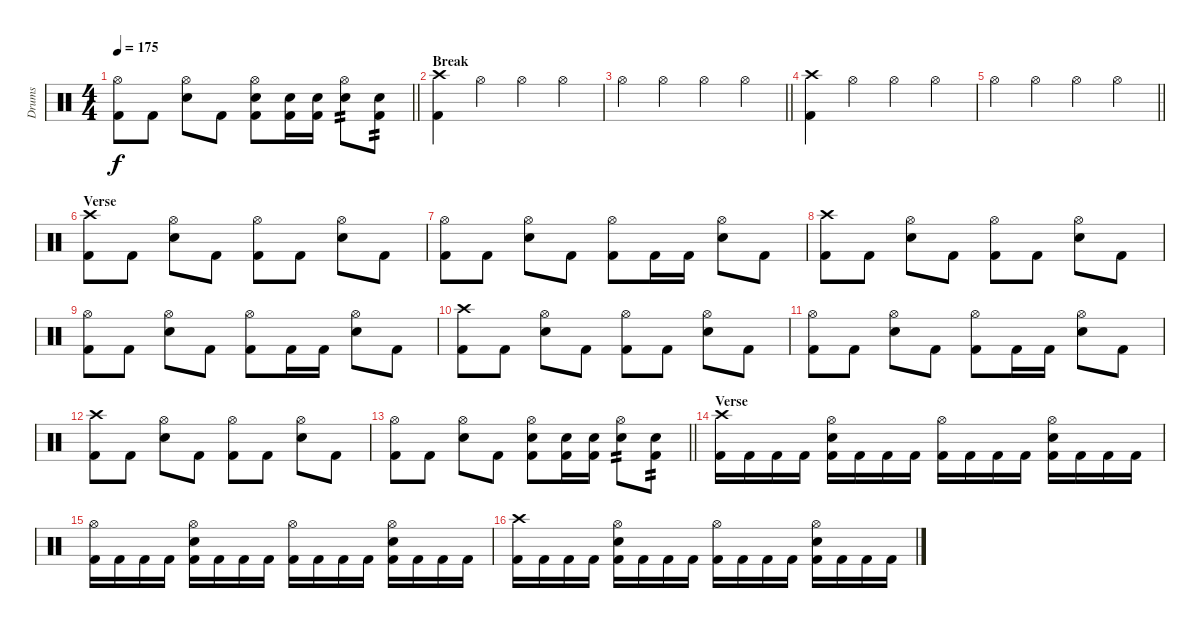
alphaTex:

\track ("Drums" "Drums") {instrument percussion}
\staff {score}
\articulation defaults
\ts (4 4)
\tempo 175
\clef neutral
\barLineRight lightlight
\ks c
("Hi-Hat (open)" "Kick (hit) 2").8{dy f} "Kick (hit) 2".8 ("Hi-Hat (open)" "Snare (hit) 2").8 "Kick (hit) 2".8 ("Hi-Hat (open)" "Snare (hit) 2" "Kick (hit) 2").8 ("Snare (hit) 2" "Kick (hit) 2").16 ("Snare (hit) 2" "Kick (hit) 2").16 ("Hi-Hat (open)" "Snare (hit) 2").8{tp 2} ("Snare (hit) 2" "Kick (hit) 2").8{tp 2} |
\section ("" "Break")
("Crash high (hit)" "Kick (hit) 2").4 "Hi-Hat (open)".4 "Hi-Hat (open)".4 "Hi-Hat (open)".4 |
\barLineRight lightlight "Hi-Hat (open)".4 "Hi-Hat (open)".4 "Hi-Hat (open)".4 "Hi-Hat (open)".4
|
("Crash high (hit)" "Kick (hit) 2").4 "Hi-Hat (open)".4 "Hi-Hat (open)".4 "Hi-Hat (open)".4 |
\barLineRight lightlight "Hi-Hat (open)".4 "Hi-Hat (open)".4 "Hi-Hat (open)".4 "Hi-Hat (open)".4
|
\section ("" "Verse")
("Crash high (hit)" "Kick (hit) 2").8 "Kick (hit) 2".8 ("Hi-Hat (open)" "Snare (hit) 2").8 "Kick (hit) 2".8 ("Hi-Hat (open)" "Kick (hit) 2").8 "Kick (hit) 2".8 ("Hi-Hat (open)" "Snare (hit) 2").8 "Kick (hit) 2".8 |
("Hi-Hat (open)" "Kick (hit) 2").8 "Kick (hit) 2".8 ("Hi-Hat (open)" "Snare (hit) 2").8 "Kick (hit) 2".8 ("Hi-Hat (open)" "Kick (hit) 2").8 "Kick (hit) 2".16 "Kick (hit) 2".16 ("Hi-Hat (open)" "Snare (hit) 2").8 "Kick (hit) 2".8 |
("Crash high (hit)" "Kick (hit) 2").8 "Kick (hit) 2".8 ("Hi-Hat (open)" "Snare (hit) 2").8 "Kick (hit) 2".8 ("Hi-Hat (open)" "Kick (hit) 2").8 "Kick (hit) 2".8 ("Hi-Hat (open)" "Snare (hit) 2").8 "Kick (hit) 2".8 |
("Hi-Hat (open)" "Kick (hit) 2").8 "Kick (hit) 2".8 ("Hi-Hat (open)" "Snare (hit) 2").8 "Kick (hit) 2".8 ("Hi-Hat (open)" "Kick (hit) 2").8 "Kick (hit) 2".16 "Kick (hit) 2".16 ("Hi-Hat (open)" "Snare (hit) 2").8 "Kick (hit) 2".8 |
("Crash high (hit)" "Kick (hit) 2").8 "Kick (hit) 2".8 ("Hi-Hat (open)" "Snare (hit) 2").8 "Kick (hit) 2".8 ("Hi-Hat (open)" "Kick (hit) 2").8 "Kick (hit) 2".8 ("Hi-Hat (open)" "Snare (hit) 2").8 "Kick (hit) 2".8 |
("Hi-Hat (open)" "Kick (hit) 2").8 "Kick (hit) 2".8 ("Hi-Hat (open)" "Snare (hit) 2").8 "Kick (hit) 2".8 ("Hi-Hat (open)" "Kick (hit) 2").8 "Kick (hit) 2".16 "Kick (hit) 2".16 ("Hi-Hat (open)" "Snare (hit) 2").8 "Kick (hit) 2".8 |
("Crash high (hit)" "Kick (hit) 2").8 "Kick (hit) 2".8 ("Hi-Hat (open)" "Snare (hit) 2").8 "Kick (hit) 2".8 ("Hi-Hat (open)" "Kick (hit) 2").8 "Kick (hit) 2".8 ("Hi-Hat (open)" "Snare (hit) 2").8 "Kick (hit) 2".8 |
\barLineRight lightlight
("Hi-Hat (open)" "Kick (hit) 2").8 "Kick (hit) 2".8 ("Hi-Hat (open)" "Snare (hit) 2").8 "Kick (hit) 2".8 ("Hi-Hat (open)" "Snare (hit) 2" "Kick (hit) 2").8 ("Snare (hit) 2" "Kick (hit) 2").16 ("Snare (hit) 2" "Kick (hit) 2").16 ("Hi-Hat (open)" "Snare (hit) 2").8{tp 2} ("Snare (hit) 2" "Kick (hit) 2").8{tp 2} |
\section ("" "Verse")
("Crash high (hit)" "Kick (hit) 2").16 "Kick (hit) 2".16 "Kick (hit) 2".16 "Kick (hit) 2".16 ("Hi-Hat (open)" "Snare (hit) 2" "Kick (hit) 2").16 "Kick (hit) 2".16 "Kick (hit) 2".16 "Kick (hit) 2".16 ("Hi-Hat (open)" "Kick (hit) 2").16 "Kick (hit) 2".16 "Kick (hit) 2".16 "Kick (hit) 2".16 ("Hi-Hat (open)" "Snare (hit) 2" "Kick (hit) 2").16 "Kick (hit) 2".16 "Kick (hit) 2".16 "Kick (hit) 2".16 |
("Hi-Hat (open)" "Kick (hit) 2").16 "Kick (hit) 2".16 "Kick (hit) 2".16 "Kick (hit) 2".16 ("Hi-Hat (open)" "Snare (hit) 2" "Kick (hit) 2").16 "Kick (hit) 2".16 "Kick (hit) 2".16 "Kick (hit) 2".16 ("Hi-Hat (open)" "Kick (hit) 2").16 "Kick (hit) 2".16 "Kick (hit) 2".16 "Kick (hit) 2".16 ("Hi-Hat (open)" "Snare (hit) 2" "Kick (hit) 2").16 "Kick (hit) 2".16 "Kick (hit) 2".16 "Kick (hit) 2".16 |
("Crash high (hit)" "Kick (hit) 2").16 "Kick (hit) 2".16 "Kick (hit) 2".16 "Kick (hit) 2".16 ("Hi-Hat (open)" "Snare (hit) 2" "Kick (hit) 2").16 "Kick (hit) 2".16 "Kick (hit) 2".16 "Kick (hit) 2".16 ("Hi-Hat (open)" "Kick (hit) 2").16 "Kick (hit) 2".16 "Kick (hit) 2".16 "Kick (hit) 2".16 ("Hi-Hat (open)" "Snare (hit) 2" "Kick (hit) 2").16 "Kick (hit) 2".16 "Kick (hit) 2".16 "Kick (hit) 2".16
